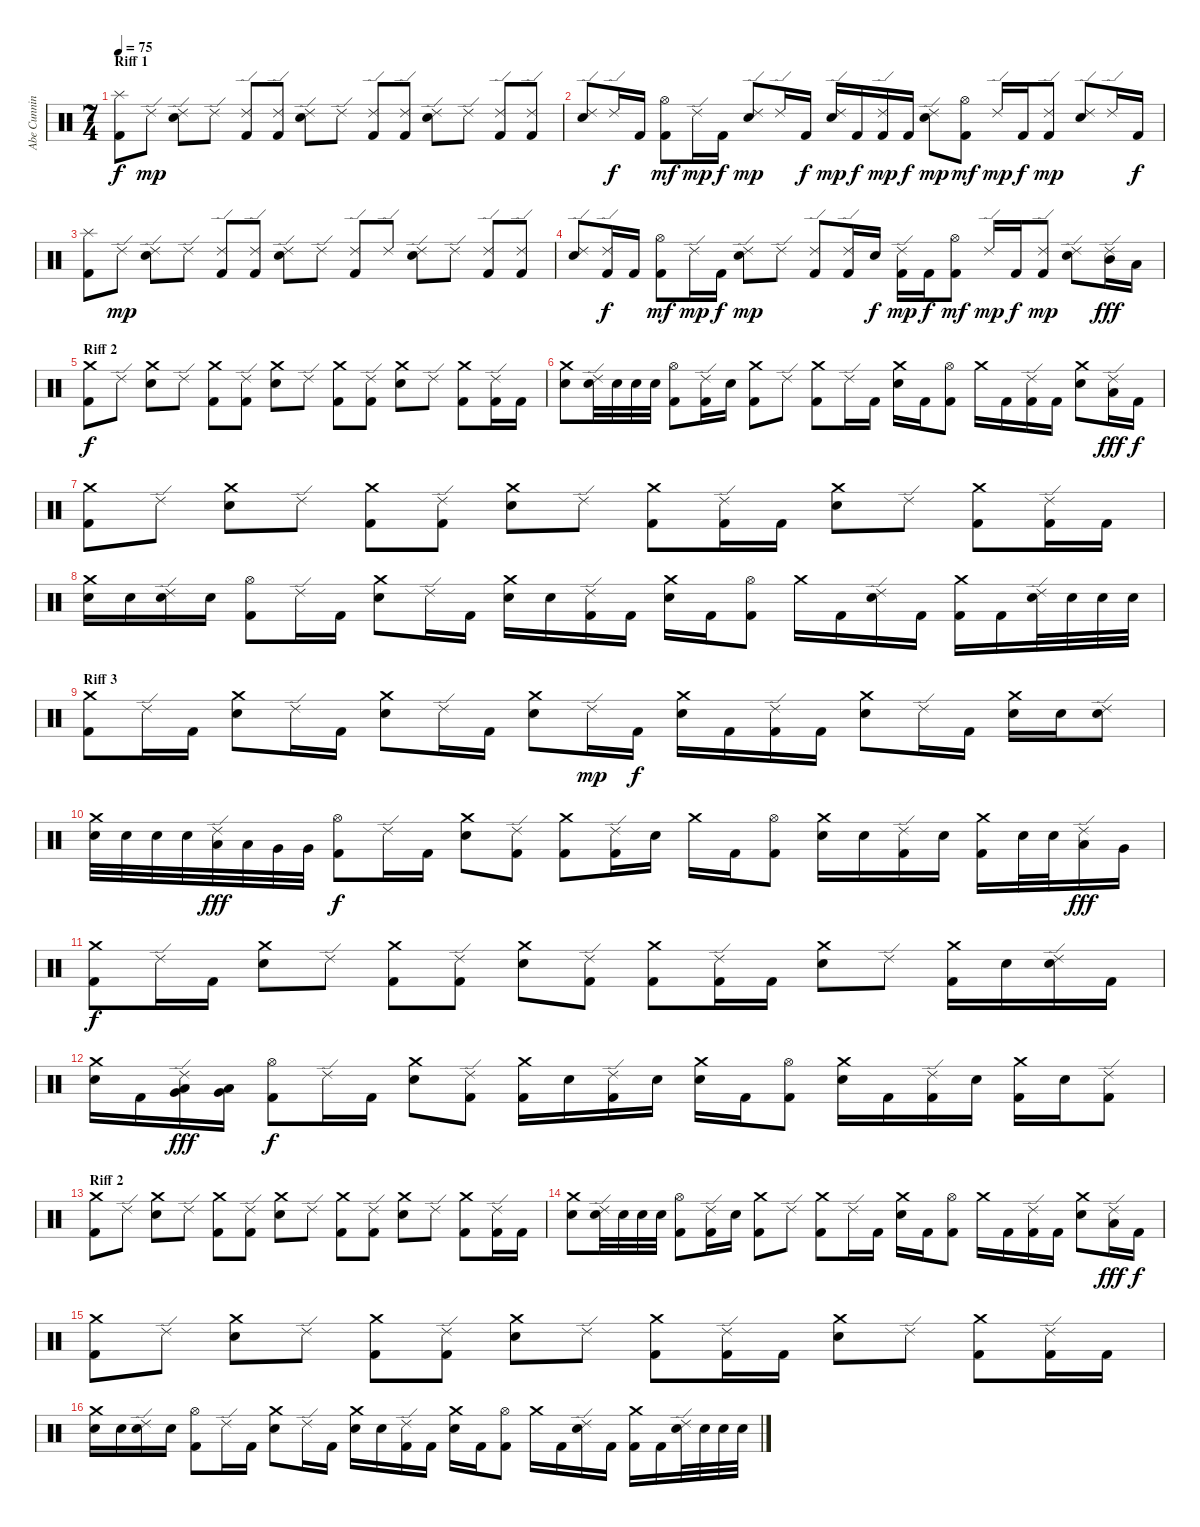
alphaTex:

\track ("Abe Cunningham" "Abe Cunnin") {instrument percussion}
\staff {score}
\articulation defaults
\ts (7 4)
\section ("" "Riff 1")
\tempo 75
\clef neutral
\ks c
("Splash (hit)" "Kick (hit) 2").8{dy f volume 11} "Ride (edge) 2".8{dy mp} ("Ride (edge) 2" "Electric Snare (hit)").8 "Ride (edge) 2".8 ("Ride (edge) 2" "Kick (hit) 2").8 ("Ride (edge) 2" "Kick (hit) 2").8 ("Ride (edge) 2" "Electric Snare (hit)").8 "Ride (edge) 2".8 ("Ride (edge) 2" "Kick (hit) 2").8 ("Ride (edge) 2" "Kick (hit) 2").8 ("Ride (edge) 2" "Electric Snare (hit)").8 "Ride (edge) 2".8 ("Ride (edge) 2" "Kick (hit) 2").8 ("Ride (edge) 2" "Kick (hit) 2").8 |
("Ride (edge) 2" "Electric Snare (hit)").8 "Ride (edge) 2".16{dy f} "Kick (hit) 2".16 ("Hi-Hat (open)" "Kick (hit) 2").8{dy mf} "Ride (edge) 2".16{dy mp} "Kick (hit) 2".16{dy f} ("Ride (edge) 2" "Electric Snare (hit)").8{dy mp} "Ride (edge) 2".16 "Kick (hit) 2".16{dy f} ("Ride (edge) 2" "Electric Snare (hit)").16{dy mp} "Kick (hit) 2".16{dy f} ("Ride (edge) 2" "Kick (hit) 2").16{dy mp} "Kick (hit) 2".16{dy f} ("Ride (edge) 2" "Electric Snare (hit)").8{dy mp} ("Hi-Hat (open)" "Kick (hit) 2").8{dy mf} "Ride (edge) 2".16{dy mp} "Kick (hit) 2".16{dy f} ("Ride (edge) 2" "Kick (hit) 2").8{dy mp} ("Ride (edge) 2" "Electric Snare (hit)").8 "Ride (edge) 2".16 "Kick (hit) 2".16{dy f} |
("Splash (hit)" "Kick (hit) 2").8 "Ride (edge) 2".8{dy mp} ("Ride (edge) 2" "Electric Snare (hit)").8 "Ride (edge) 2".8 ("Ride (edge) 2" "Kick (hit) 2").8 ("Ride (edge) 2" "Kick (hit) 2").8 ("Ride (edge) 2" "Electric Snare (hit)").8 "Ride (edge) 2".8 ("Ride (edge) 2" "Kick (hit) 2").8 "Ride (edge) 2".8 ("Ride (edge) 2" "Electric Snare (hit)").8 "Ride (edge) 2".8 ("Ride (edge) 2" "Kick (hit) 2").8 ("Ride (edge) 2" "Kick (hit) 2").8 |
("Ride (edge) 2" "Electric Snare (hit)").8 ("Ride (edge) 2" "Kick (hit) 2").16{dy f} "Kick (hit) 2".16 ("Hi-Hat (open)" "Kick (hit) 2").8{dy mf} "Ride (edge) 2".16{dy mp} "Kick (hit) 2".16{dy f} ("Ride (edge) 2" "Electric Snare (hit)").8{dy mp} "Ride (edge) 2".8 ("Ride (edge) 2" "Kick (hit) 2").8 ("Ride (edge) 2" "Kick (hit) 2").16 "Electric Snare (hit)".16{dy f} ("Ride (edge) 2" "Kick (hit) 2").16{dy mp} "Kick (hit) 2".16{dy f} ("Hi-Hat (open)" "Kick (hit) 2").8{dy mf} "Ride (edge) 2".16{dy mp} "Kick (hit) 2".16{dy f} ("Ride (edge) 2" "Kick (hit) 2").8{dy mp} ("Ride (edge) 2" "Electric Snare (hit)").8{volume 14} ("Ride (edge) 2" "Mid Tom (hit)").16{dy fff} "Low Tom (hit)".16 |
\section ("" "Riff 2")
("Crash medium (hit)" "Kick (hit) 2").8{dy f} "Ride (edge) 2".8 ("Crash medium (hit)" "Electric Snare (hit)").8 "Ride (edge) 2".8 ("Crash medium (hit)" "Kick (hit) 2").8 ("Ride (edge) 2" "Kick (hit) 2").8 ("Crash medium (hit)" "Electric Snare (hit)").8 "Ride (edge) 2".8 ("Crash medium (hit)" "Kick (hit) 2").8 ("Ride (edge) 2" "Kick (hit) 2").8 ("Crash medium (hit)" "Electric Snare (hit)").8 "Ride (edge) 2".8 ("Crash medium (hit)" "Kick (hit) 2").8 ("Ride (edge) 2" "Kick (hit) 2").16 "Kick (hit) 2".16 |
("Crash medium (hit)" "Electric Snare (hit)").8 ("Ride (edge) 2" "Electric Snare (hit)").32 "Electric Snare (hit)".32 "Electric Snare (hit)".32 "Electric Snare (hit)".32 ("Hi-Hat (open)" "Kick (hit) 2").8 ("Ride (edge) 2" "Kick (hit) 2").16 "Electric Snare (hit)".16 ("Crash medium (hit)" "Kick (hit) 2").8 "Ride (edge) 2".8 ("Crash medium (hit)" "Kick (hit) 2").8 "Ride (edge) 2".16 "Kick (hit) 2".16 ("Crash medium (hit)" "Electric Snare (hit)").16 "Kick (hit) 2".16 ("Hi-Hat (open)" "Kick (hit) 2").8 "Crash medium (hit)".16 "Kick (hit) 2".16 ("Ride (edge) 2" "Kick (hit) 2").16 "Kick (hit) 2".16 ("Crash medium (hit)" "Electric Snare (hit)").8 ("Ride (edge) 2" "Low Floor Tom (hit)").16{dy fff} "Kick (hit) 2".16{dy f} |
("Crash medium (hit)" "Kick (hit) 2").8 "Ride (edge) 2".8 ("Crash medium (hit)" "Electric Snare (hit)").8 "Ride (edge) 2".8 ("Crash medium (hit)" "Kick (hit) 2").8 ("Ride (edge) 2" "Kick (hit) 2").8 ("Crash medium (hit)" "Electric Snare (hit)").8 "Ride (edge) 2".8 ("Crash medium (hit)" "Kick (hit) 2").8 ("Ride (edge) 2" "Kick (hit) 2").16 "Kick (hit) 2".16 ("Crash medium (hit)" "Electric Snare (hit)").8 "Ride (edge) 2".8 ("Crash medium (hit)" "Kick (hit) 2").8 ("Ride (edge) 2" "Kick (hit) 2").16 "Kick (hit) 2".16 |
("Crash medium (hit)" "Electric Snare (hit)").16 "Electric Snare (hit)".16 ("Ride (edge) 2" "Electric Snare (hit)").16 "Electric Snare (hit)".16 ("Hi-Hat (open)" "Kick (hit) 2").8 "Ride (edge) 2".16 "Kick (hit) 2".16 ("Crash medium (hit)" "Electric Snare (hit)").8 "Ride (edge) 2".16 "Kick (hit) 2".16 ("Crash medium (hit)" "Electric Snare (hit)").16 "Electric Snare (hit)".16 ("Ride (edge) 2" "Kick (hit) 2").16 "Kick (hit) 2".16 ("Crash medium (hit)" "Electric Snare (hit)").16 "Kick (hit) 2".16 ("Hi-Hat (open)" "Kick (hit) 2").8 "Crash medium (hit)".16 "Kick (hit) 2".16 ("Ride (edge) 2" "Electric Snare (hit)").16 "Kick (hit) 2".16 ("Crash medium (hit)" "Kick (hit) 2").16 "Kick (hit) 2".16 ("Ride (edge) 2" "Electric Snare (hit)").32 "Electric Snare (hit)".32 "Electric Snare (hit)".32 "Electric Snare (hit)".32 |
\section ("" "Riff 3")
("Crash medium (hit)" "Kick (hit) 2").8 "Ride (edge) 2".16 "Kick (hit) 2".16 ("Crash medium (hit)" "Electric Snare (hit)").8 "Ride (edge) 2".16 "Kick (hit) 2".16 ("Crash medium (hit)" "Electric Snare (hit)").8 "Ride (edge) 2".16 "Kick (hit) 2".16 ("Crash medium (hit)" "Electric Snare (hit)").8 "Ride (edge) 2".16{dy mp} "Kick (hit) 2".16{dy f} ("Crash medium (hit)" "Electric Snare (hit)").16 "Kick (hit) 2".16 ("Ride (edge) 2" "Kick (hit) 2").16 "Kick (hit) 2".16 ("Crash medium (hit)" "Electric Snare (hit)").8 "Ride (edge) 2".16 "Kick (hit) 2".16 ("Crash medium (hit)" "Electric Snare (hit)").16 "Electric Snare (hit)".16 ("Ride (edge) 2" "Electric Snare (hit)").8 |
("Crash medium (hit)" "Electric Snare (hit)").32 "Electric Snare (hit)".32 "Electric Snare (hit)".32 "Electric Snare (hit)".32 ("Ride (edge) 2" "Low Tom (hit)").32{dy fff} "Low Tom (hit)".32 "Very Low Tom (hit)".32 "Very Low Tom (hit)".32 ("Hi-Hat (open)" "Kick (hit) 2").8{dy f} "Ride (edge) 2".16 "Kick (hit) 2".16 ("Crash medium (hit)" "Electric Snare (hit)").8 ("Ride (edge) 2" "Kick (hit) 2").8 ("Crash medium (hit)" "Kick (hit) 2").8 ("Ride (edge) 2" "Kick (hit) 2").16 "Electric Snare (hit)".16 "Crash medium (hit)".16 "Kick (hit) 2".16 ("Hi-Hat (open)" "Kick (hit) 2").8 ("Crash medium (hit)" "Electric Snare (hit)").16 "Electric Snare (hit)".16 ("Ride (edge) 2" "Kick (hit) 2").16 "Electric Snare (hit)".16 ("Crash medium (hit)" "Kick (hit) 2").16 "Electric Snare (hit)".32 "Electric Snare (hit)".32 ("Ride (edge) 2" "Low Tom (hit)").16{dy fff} "Very Low Tom (hit)".16 |
("Crash medium (hit)" "Kick (hit) 2").8{dy f} "Ride (edge) 2".16 "Kick (hit) 2".16 ("Crash medium (hit)" "Electric Snare (hit)").8 "Ride (edge) 2".8 ("Crash medium (hit)" "Kick (hit) 2").8 ("Ride (edge) 2" "Kick (hit) 2").8 ("Crash medium (hit)" "Electric Snare (hit)").8 ("Ride (edge) 2" "Kick (hit) 2").8 ("Crash medium (hit)" "Kick (hit) 2").8 ("Ride (edge) 2" "Kick (hit) 2").16 "Kick (hit) 2".16 ("Crash medium (hit)" "Electric Snare (hit)").8 "Ride (edge) 2".8 ("Crash medium (hit)" "Kick (hit) 2").16 "Electric Snare (hit)".16 ("Ride (edge) 2" "Electric Snare (hit)").16 "Kick (hit) 2".16 |
("Crash medium (hit)" "Electric Snare (hit)").16 "Kick (hit) 2".16 ("Ride (edge) 2" "Very Low Tom (hit)" "Low Floor Tom (hit)").16{dy fff} ("Very Low Tom (hit)" "Low Floor Tom (hit)").16 ("Hi-Hat (open)" "Kick (hit) 2").8{dy f} "Ride (edge) 2".16 "Kick (hit) 2".16 ("Crash medium (hit)" "Electric Snare (hit)").8 ("Ride (edge) 2" "Kick (hit) 2").8 ("Crash medium (hit)" "Kick (hit) 2").16 "Electric Snare (hit)".16 ("Ride (edge) 2" "Kick (hit) 2").16 "Electric Snare (hit)".16 ("Crash medium (hit)" "Electric Snare (hit)").16 "Kick (hit) 2".16 ("Hi-Hat (open)" "Kick (hit) 2").8 ("Crash medium (hit)" "Electric Snare (hit)").16 "Kick (hit) 2".16 ("Ride (edge) 2" "Kick (hit) 2").16 "Electric Snare (hit)".16 ("Crash medium (hit)" "Kick (hit) 2").16 "Electric Snare (hit)".16 ("Ride (edge) 2" "Kick (hit) 2").8 |
\section ("" "Riff 2")
("Crash medium (hit)" "Kick (hit) 2").8 "Ride (edge) 2".8 ("Crash medium (hit)" "Electric Snare (hit)").8 "Ride (edge) 2".8 ("Crash medium (hit)" "Kick (hit) 2").8 ("Ride (edge) 2" "Kick (hit) 2").8 ("Crash medium (hit)" "Electric Snare (hit)").8 "Ride (edge) 2".8 ("Crash medium (hit)" "Kick (hit) 2").8 ("Ride (edge) 2" "Kick (hit) 2").8 ("Crash medium (hit)" "Electric Snare (hit)").8 "Ride (edge) 2".8 ("Crash medium (hit)" "Kick (hit) 2").8 ("Ride (edge) 2" "Kick (hit) 2").16 "Kick (hit) 2".16 |
("Crash medium (hit)" "Electric Snare (hit)").8 ("Ride (edge) 2" "Electric Snare (hit)").32 "Electric Snare (hit)".32 "Electric Snare (hit)".32 "Electric Snare (hit)".32 ("Hi-Hat (open)" "Kick (hit) 2").8 ("Ride (edge) 2" "Kick (hit) 2").16 "Electric Snare (hit)".16 ("Crash medium (hit)" "Kick (hit) 2").8 "Ride (edge) 2".8 ("Crash medium (hit)" "Kick (hit) 2").8 "Ride (edge) 2".16 "Kick (hit) 2".16 ("Crash medium (hit)" "Electric Snare (hit)").16 "Kick (hit) 2".16 ("Hi-Hat (open)" "Kick (hit) 2").8 "Crash medium (hit)".16 "Kick (hit) 2".16 ("Ride (edge) 2" "Kick (hit) 2").16 "Kick (hit) 2".16 ("Crash medium (hit)" "Electric Snare (hit)").8 ("Ride (edge) 2" "Low Floor Tom (hit)").16{dy fff} "Kick (hit) 2".16{dy f} |
("Crash medium (hit)" "Kick (hit) 2").8 "Ride (edge) 2".8 ("Crash medium (hit)" "Electric Snare (hit)").8 "Ride (edge) 2".8 ("Crash medium (hit)" "Kick (hit) 2").8 ("Ride (edge) 2" "Kick (hit) 2").8 ("Crash medium (hit)" "Electric Snare (hit)").8 "Ride (edge) 2".8 ("Crash medium (hit)" "Kick (hit) 2").8 ("Ride (edge) 2" "Kick (hit) 2").16 "Kick (hit) 2".16 ("Crash medium (hit)" "Electric Snare (hit)").8 "Ride (edge) 2".8 ("Crash medium (hit)" "Kick (hit) 2").8 ("Ride (edge) 2" "Kick (hit) 2").16 "Kick (hit) 2".16 |
("Crash medium (hit)" "Electric Snare (hit)").16 "Electric Snare (hit)".16 ("Ride (edge) 2" "Electric Snare (hit)").16 "Electric Snare (hit)".16 ("Hi-Hat (open)" "Kick (hit) 2").8 "Ride (edge) 2".16 "Kick (hit) 2".16 ("Crash medium (hit)" "Electric Snare (hit)").8 "Ride (edge) 2".16 "Kick (hit) 2".16 ("Crash medium (hit)" "Electric Snare (hit)").16 "Electric Snare (hit)".16 ("Ride (edge) 2" "Kick (hit) 2").16 "Kick (hit) 2".16 ("Crash medium (hit)" "Electric Snare (hit)").16 "Kick (hit) 2".16 ("Hi-Hat (open)" "Kick (hit) 2").8 "Crash medium (hit)".16 "Kick (hit) 2".16 ("Ride (edge) 2" "Electric Snare (hit)").16 "Kick (hit) 2".16 ("Crash medium (hit)" "Kick (hit) 2").16 "Kick (hit) 2".16 ("Ride (edge) 2" "Electric Snare (hit)").32 "Electric Snare (hit)".32 "Electric Snare (hit)".32 "Electric Snare (hit)".32
